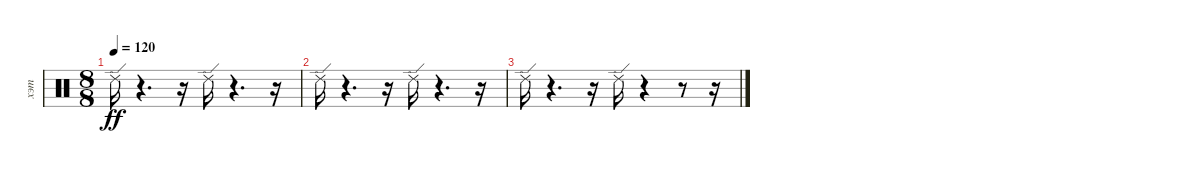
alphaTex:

\track ("хэт" "хэт") {instrument percussion}
\staff {score}
\articulation defaults
\ts (8 8)
\tempo 120
\clef neutral
\ks c "Ride (edge) 2".16{dy ff volume 7}
r.4{d} r.16 "Ride (edge) 2".16{volume 7} r.4{d} r.16 |
"Ride (edge) 2".16{volume 6} r.4{d} r.16 "Ride (edge) 2".16{volume 5} r.4{d} r.16 |
"Ride (edge) 2".16{volume 4} r.4{d} r.16 "Ride (edge) 2".16{volume 3} r.4 r.8 r.16
